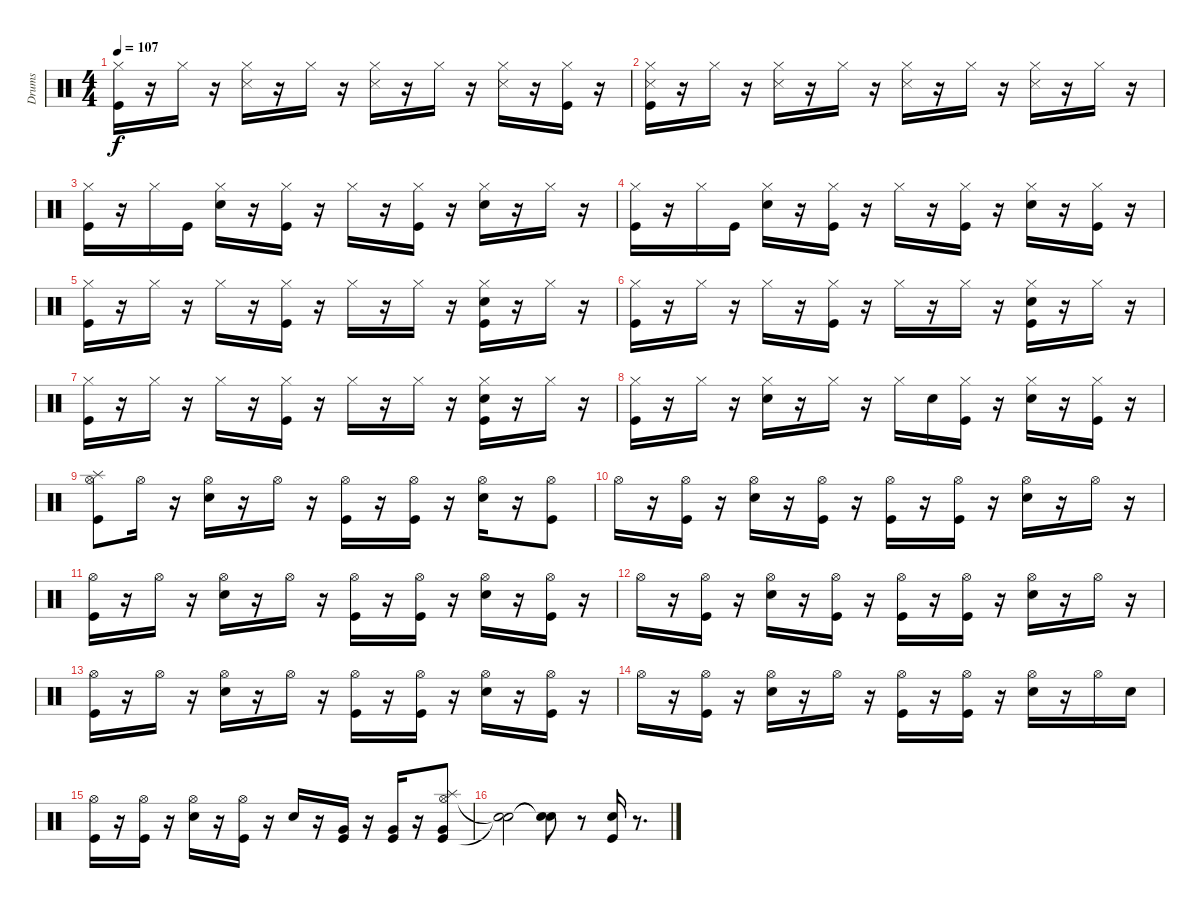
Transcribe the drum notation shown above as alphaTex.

\track ("Drums" "Drums") {instrument percussion}
\staff {score}
\articulation defaults
\ts (4 4)
\tempo 107
\clef neutral
\ks c
("Hi-Hat (closed)" "Kick (hit)").16{dy f} r.16 "Hi-Hat (closed)".16 r.16 ("Hi-Hat (closed)" "Metronome (hit)").16 r.16 "Hi-Hat (closed)".16 r.16 ("Hi-Hat (closed)" "Metronome (hit)").16 r.16 "Hi-Hat (closed)".16 r.16 ("Hi-Hat (closed)" "Metronome (hit)").16 r.16 ("Hi-Hat (closed)" "Kick (hit)").16 r.16 |
("Hi-Hat (closed)" "Kick (hit)" "Metronome (hit)").16 r.16 "Hi-Hat (closed)".16 r.16 ("Hi-Hat (closed)" "Metronome (hit)").16 r.16 "Hi-Hat (closed)".16 r.16 ("Hi-Hat (closed)" "Metronome (hit)").16 r.16 "Hi-Hat (closed)".16 r.16 ("Hi-Hat (closed)" "Metronome (hit)").16 r.16 "Hi-Hat (closed)".16 r.16 |
("Hi-Hat (closed)" "Kick (hit)").16 r.16 "Hi-Hat (closed)".16 "Kick (hit)".16 ("Hi-Hat (closed)" "Electric Snare (hit)").16 r.16 ("Kick (hit)" "Hi-Hat (closed)").16 r.16 "Hi-Hat (closed)".16 r.16 ("Hi-Hat (closed)" "Kick (hit)").16 r.16 ("Hi-Hat (closed)" "Electric Snare (hit)").16 r.16 "Hi-Hat (closed)".16 r.16 |
("Kick (hit)" "Hi-Hat (closed)").16 r.16 "Hi-Hat (closed)".16 "Kick (hit)".16 ("Electric Snare (hit)" "Hi-Hat (closed)").16 r.16 ("Kick (hit)" "Hi-Hat (closed)").16 r.16 "Hi-Hat (closed)".16 r.16 ("Kick (hit)" "Hi-Hat (closed)").16 r.16 ("Electric Snare (hit)" "Hi-Hat (closed)").16 r.16 ("Kick (hit)" "Hi-Hat (closed)").16 r.16 |
("Hi-Hat (closed)" "Kick (hit)").16 r.16 "Hi-Hat (closed)".16 r.16 "Hi-Hat (closed)".16 r.16 ("Hi-Hat (closed)" "Kick (hit)").16 r.16 "Hi-Hat (closed)".16 r.16 "Hi-Hat (closed)".16 r.16 ("Hi-Hat (closed)" "Electric Snare (hit)" "Kick (hit)").16 r.16 "Hi-Hat (closed)".16 r.16 |
("Hi-Hat (closed)" "Kick (hit)").16 r.16 "Hi-Hat (closed)".16 r.16 "Hi-Hat (closed)".16 r.16 ("Hi-Hat (closed)" "Kick (hit)").16 r.16 "Hi-Hat (closed)".16 r.16 "Hi-Hat (closed)".16 r.16 ("Hi-Hat (closed)" "Kick (hit)" "Electric Snare (hit)").16 r.16 "Hi-Hat (closed)".16 r.16 |
("Hi-Hat (closed)" "Kick (hit)").16 r.16 "Hi-Hat (closed)".16 r.16 "Hi-Hat (closed)".16 r.16 ("Hi-Hat (closed)" "Kick (hit)").16 r.16 "Hi-Hat (closed)".16 r.16 "Hi-Hat (closed)".16 r.16 ("Hi-Hat (closed)" "Electric Snare (hit)" "Kick (hit)").16 r.16 "Hi-Hat (closed)".16 r.16 |
("Kick (hit)" "Hi-Hat (closed)").16 r.16 "Hi-Hat (closed)".16 r.16 ("Electric Snare (hit)" "Hi-Hat (closed)").16 r.16 "Hi-Hat (closed)".16 r.16 "Hi-Hat (closed)".16 "Electric Snare (hit)".16 ("Hi-Hat (closed)" "Kick (hit)").16 r.16 ("Hi-Hat (closed)" "Electric Snare (hit)").16 r.16 ("Kick (hit)" "Hi-Hat (closed)").16 r.16 |
("Kick (hit)" "Splash (hit)" "Hi-Hat (open)").8 "Hi-Hat (open)".16 r.16 ("Hi-Hat (open)" "Electric Snare (hit)").16 r.16 "Hi-Hat (open)".16 r.16 ("Hi-Hat (open)" "Kick (hit)").16 r.16 ("Hi-Hat (open)" "Kick (hit)").16 r.16 ("Hi-Hat (open)" "Electric Snare (hit)").16 r.16 ("Hi-Hat (open)" "Kick (hit)").8 |
"Hi-Hat (open)".16 r.16 ("Hi-Hat (open)" "Kick (hit)").16 r.16 ("Hi-Hat (open)" "Electric Snare (hit)").16 r.16 ("Kick (hit)" "Hi-Hat (open)").16 r.16 ("Hi-Hat (open)" "Kick (hit)").16 r.16 ("Hi-Hat (open)" "Kick (hit)").16 r.16 ("Hi-Hat (open)" "Electric Snare (hit)").16 r.16 "Hi-Hat (open)".16 r.16 |
("Hi-Hat (open)" "Kick (hit)").16 r.16 "Hi-Hat (open)".16 r.16 ("Hi-Hat (open)" "Electric Snare (hit)").16 r.16 "Hi-Hat (open)".16 r.16 ("Hi-Hat (open)" "Kick (hit)").16 r.16 ("Hi-Hat (open)" "Kick (hit)").16 r.16 ("Hi-Hat (open)" "Electric Snare (hit)").16 r.16 ("Hi-Hat (open)" "Kick (hit)").16 r.16 |
"Hi-Hat (open)".16 r.16 ("Hi-Hat (open)" "Kick (hit)").16 r.16 ("Hi-Hat (open)" "Electric Snare (hit)").16 r.16 ("Kick (hit)" "Hi-Hat (open)").16 r.16 ("Hi-Hat (open)" "Kick (hit)").16 r.16 ("Hi-Hat (open)" "Kick (hit)").16 r.16 ("Hi-Hat (open)" "Electric Snare (hit)").16 r.16 "Hi-Hat (open)".16 r.16 |
("Kick (hit)" "Hi-Hat (open)").16 r.16 "Hi-Hat (open)".16 r.16 ("Electric Snare (hit)" "Hi-Hat (open)").16 r.16 "Hi-Hat (open)".16 r.16 ("Kick (hit)" "Hi-Hat (open)").16 r.16 ("Kick (hit)" "Hi-Hat (open)").16 r.16 ("Hi-Hat (open)" "Electric Snare (hit)").16 r.16 ("Kick (hit)" "Hi-Hat (open)").16 r.16 |
"Hi-Hat (open)".16 r.16 ("Kick (hit)" "Hi-Hat (open)").16 r.16 ("Hi-Hat (open)" "Electric Snare (hit)").16 r.16 "Hi-Hat (open)".16 r.16 ("Hi-Hat (open)" "Kick (hit)").16 r.16 ("Hi-Hat (open)" "Kick (hit)").16 r.16 ("Hi-Hat (open)" "Electric Snare (hit)").16 r.16 "Hi-Hat (open)".16 "Electric Snare (hit)".16 |
("Hi-Hat (open)" "Kick (hit)").16 r.16 ("Hi-Hat (open)" "Kick (hit)").16 r.16 ("Hi-Hat (open)" "Electric Snare (hit)").16 r.16 ("Hi-Hat (open)" "Kick (hit)").16 r.16 "Electric Snare (hit)".16 r.16 ("Very Low Tom (hit)" "Kick (hit)").16 r.16 ("Kick (hit)" "Very Low Tom (hit)").16 r.16 ("Kick (hit)" "Hi-Hat (open)" "Splash (hit)" "Very Low Tom (hit)").8 |
("Snare (hit)"{t} "Snare (hit)"{t}).2 ("Snare (hit)"{t} "Snare (hit)"{t}).8 r.8 ("Electric Snare (hit)" "Kick (hit)").16 r.8{d}
